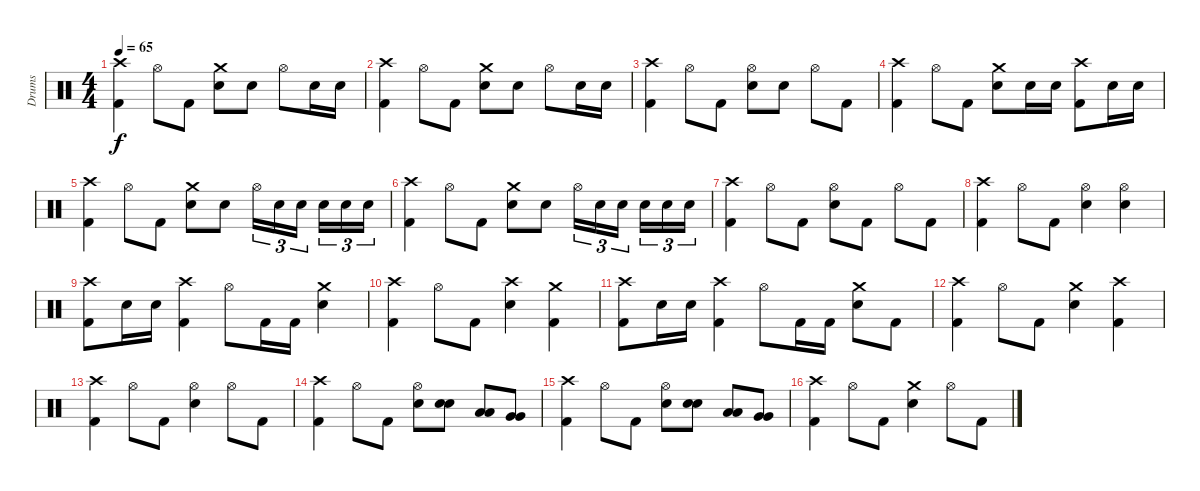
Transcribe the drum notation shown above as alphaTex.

\track ("Drums" "Drums") {instrument percussion}
\staff {score}
\articulation defaults
\ts (4 4)
\tempo 65
\clef neutral
\ks c
("Crash high (hit)" "Kick (hit) 2").4{dy f} "Hi-Hat (open)".8 "Kick (hit) 2".8 ("Crash medium (hit)" "Electric Snare (hit)").8 "Electric Snare (hit)".8 "Hi-Hat (open)".8 "Electric Snare (hit)".16 "Electric Snare (hit)".16 |
("Crash high (hit)" "Kick (hit) 2").4 "Hi-Hat (open)".8 "Kick (hit) 2".8 ("Crash medium (hit)" "Electric Snare (hit)").8 "Electric Snare (hit)".8 "Hi-Hat (open)".8 "Electric Snare (hit)".16 "Electric Snare (hit)".16 |
("Crash high (hit)" "Kick (hit) 2").4 "Hi-Hat (open)".8 "Kick (hit) 2".8 ("Hi-Hat (open)" "Electric Snare (hit)").8 "Electric Snare (hit)".8 "Hi-Hat (open)".8 "Kick (hit) 2".8 |
("Crash high (hit)" "Kick (hit) 2").4 "Hi-Hat (open)".8 "Kick (hit) 2".8 ("Crash medium (hit)" "Electric Snare (hit)").8 "Electric Snare (hit)".16 "Electric Snare (hit)".16 ("Crash high (hit)" "Kick (hit) 2").8 "Electric Snare (hit)".16 "Electric Snare (hit)".16 |
("Crash high (hit)" "Kick (hit) 2").4 "Hi-Hat (open)".8 "Kick (hit) 2".8 ("Crash medium (hit)" "Electric Snare (hit)").8 "Electric Snare (hit)".8 "Hi-Hat (open)".16{tu (3 2)} "Electric Snare (hit)".16{tu (3 2)} "Electric Snare (hit)".16{tu (3 2)} "Electric Snare (hit)".16{tu (3 2)} "Electric Snare (hit)".16{tu (3 2)} "Electric Snare (hit)".16{tu (3 2)} |
("Crash high (hit)" "Kick (hit) 2").4 "Hi-Hat (open)".8 "Kick (hit) 2".8 ("Crash medium (hit)" "Electric Snare (hit)").8 "Electric Snare (hit)".8 "Hi-Hat (open)".16{tu (3 2)} "Electric Snare (hit)".16{tu (3 2)} "Electric Snare (hit)".16{tu (3 2)} "Electric Snare (hit)".16{tu (3 2)} "Electric Snare (hit)".16{tu (3 2)} "Electric Snare (hit)".16{tu (3 2)} |
("Crash high (hit)" "Kick (hit) 2").4 "Hi-Hat (open)".8 "Kick (hit) 2".8 ("Hi-Hat (open)" "Electric Snare (hit)").8 "Kick (hit) 2".8 "Hi-Hat (open)".8 "Kick (hit) 2".8 |
("Crash high (hit)" "Kick (hit) 2").4 "Hi-Hat (open)".8 "Kick (hit) 2".8 ("Hi-Hat (open)" "Electric Snare (hit)").4 ("Hi-Hat (open)" "Electric Snare (hit)").4 |
("Crash high (hit)" "Kick (hit) 2").8 "Electric Snare (hit)".16 "Electric Snare (hit)".16 ("Crash high (hit)" "Kick (hit) 2").4 "Hi-Hat (open)".8 "Kick (hit) 2".16 "Kick (hit) 2".16 ("Crash medium (hit)" "Electric Snare (hit)").4 |
("Crash high (hit)" "Kick (hit) 2").4 "Hi-Hat (open)".8 "Kick (hit) 2".8 ("Crash high (hit)" "Electric Snare (hit)").4 ("Crash medium (hit)" "Kick (hit) 2").4 |
("Crash high (hit)" "Kick (hit) 2").8 "Electric Snare (hit)".16 "Electric Snare (hit)".16 ("Crash high (hit)" "Kick (hit) 2").4 "Hi-Hat (open)".8 "Kick (hit) 2".16 "Kick (hit) 2".16 ("Crash medium (hit)" "Electric Snare (hit)").8 "Kick (hit) 2".8 |
("Crash high (hit)" "Kick (hit) 2").4 "Hi-Hat (open)".8 "Kick (hit) 2".8 ("Crash medium (hit)" "Electric Snare (hit)").4 ("Crash high (hit)" "Kick (hit) 2").4 |
("Crash high (hit)" "Kick (hit) 2").4 "Hi-Hat (open)".8 "Kick (hit) 2".8 ("Hi-Hat (open)" "Electric Snare (hit)").4 "Hi-Hat (open)".8 "Kick (hit) 2".8 |
("Crash high (hit)" "Kick (hit) 2").4 "Hi-Hat (open)".8 "Kick (hit) 2".8 ("Hi-Hat (open)" "Electric Snare (hit)").8 ("Electric Snare (hit)" "Electric Snare (hit)").8{bu 60} ("Low Tom (hit)" "Low Tom (hit)").8{bu 60} ("Very Low Tom (hit)" "Very Low Tom (hit)").8{bu 60} |
("Crash high (hit)" "Kick (hit) 2").4 "Hi-Hat (open)".8 "Kick (hit) 2".8 ("Hi-Hat (open)" "Electric Snare (hit)").8 ("Electric Snare (hit)" "Electric Snare (hit)").8{bu 60} ("Low Tom (hit)" "Low Tom (hit)").8{bu 60} ("Very Low Tom (hit)" "Very Low Tom (hit)").8{bu 60} |
("Crash high (hit)" "Kick (hit) 2").4 "Hi-Hat (open)".8 "Kick (hit) 2".8 ("Crash medium (hit)" "Electric Snare (hit)").4 "Hi-Hat (open)".8 "Kick (hit) 2".8
